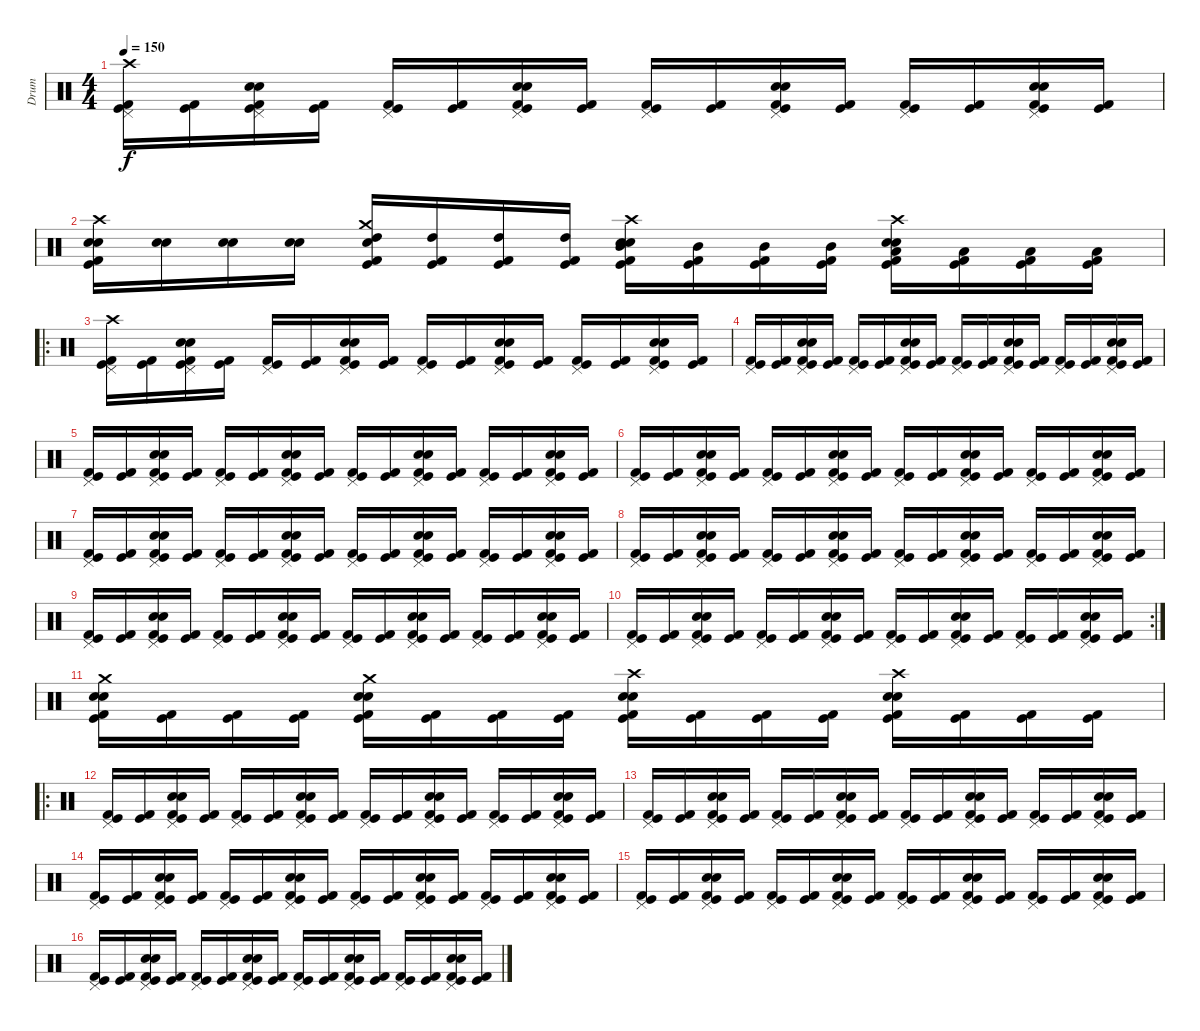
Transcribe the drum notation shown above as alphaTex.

\track ("Drum" "Drum") {instrument percussion}
\staff {score}
\articulation defaults
\ts (4 4)
\tempo 150
\clef neutral
\ks c
("Crash high (hit)" "Pedal Hi-Hat (hit)" "Kick (hit) 2" "Kick (hit)").16{dy f} ("Kick (hit) 2" "Kick (hit)").16 ("Pedal Hi-Hat (hit)" "Electric Snare (hit)" "Snare (hit) 2" "Kick (hit) 2" "Kick (hit)").16 ("Kick (hit) 2" "Kick (hit)").16 ("Pedal Hi-Hat (hit)" "Kick (hit) 2" "Kick (hit)").16 ("Kick (hit) 2" "Kick (hit)").16 ("Pedal Hi-Hat (hit)" "Electric Snare (hit)" "Snare (hit) 2" "Kick (hit) 2" "Kick (hit)").16 ("Kick (hit) 2" "Kick (hit)").16 ("Pedal Hi-Hat (hit)" "Kick (hit) 2" "Kick (hit)").16 ("Kick (hit) 2" "Kick (hit)").16 ("Pedal Hi-Hat (hit)" "Electric Snare (hit)" "Snare (hit) 2" "Kick (hit) 2" "Kick (hit)").16 ("Kick (hit) 2" "Kick (hit)").16 ("Pedal Hi-Hat (hit)" "Kick (hit) 2" "Kick (hit)").16 ("Kick (hit) 2" "Kick (hit)").16 ("Pedal Hi-Hat (hit)" "Electric Snare (hit)" "Snare (hit) 2" "Kick (hit) 2" "Kick (hit)").16 ("Kick (hit) 2" "Kick (hit)").16 |
("Crash high (hit)" "Electric Snare (hit)" "Snare (hit) 2" "Kick (hit)" "Kick (hit) 2").16 ("Electric Snare (hit)" "Snare (hit) 2").16 ("Electric Snare (hit)" "Snare (hit) 2").16 ("Electric Snare (hit)" "Snare (hit) 2").16 ("Crash medium (hit)" "High Tom (hit)" "Electric Snare (hit)" "Kick (hit)" "Kick (hit) 2").16 ("High Tom (hit)" "Kick (hit)" "Kick (hit) 2").16 ("High Tom (hit)" "Kick (hit)" "Kick (hit) 2").16 ("High Tom (hit)" "Kick (hit)" "Kick (hit) 2").16 ("Crash high (hit)" "Mid Tom (hit)" "Electric Snare (hit)" "Snare (hit) 2" "Kick (hit)" "Kick (hit) 2").16 ("Mid Tom (hit)" "Kick (hit)" "Kick (hit) 2").16 ("Mid Tom (hit)" "Kick (hit)" "Kick (hit) 2").16 ("Mid Tom (hit)" "Kick (hit)" "Kick (hit) 2").16 ("Crash high (hit)" "Low Tom (hit)" "Electric Snare (hit)" "Snare (hit) 2" "Kick (hit)" "Kick (hit) 2").16 ("Low Tom (hit)" "Kick (hit)" "Kick (hit) 2").16 ("Low Tom (hit)" "Kick (hit)" "Kick (hit) 2").16 ("Low Tom (hit)" "Kick (hit)" "Kick (hit) 2").16 |
\ro
("Crash high (hit)" "Pedal Hi-Hat (hit)" "Kick (hit) 2" "Kick (hit)").16 ("Kick (hit) 2" "Kick (hit)").16 ("Pedal Hi-Hat (hit)" "Electric Snare (hit)" "Snare (hit) 2" "Kick (hit) 2" "Kick (hit)").16 ("Kick (hit) 2" "Kick (hit)").16 ("Pedal Hi-Hat (hit)" "Kick (hit) 2" "Kick (hit)").16 ("Kick (hit) 2" "Kick (hit)").16 ("Pedal Hi-Hat (hit)" "Electric Snare (hit)" "Snare (hit) 2" "Kick (hit) 2" "Kick (hit)").16 ("Kick (hit) 2" "Kick (hit)").16 ("Pedal Hi-Hat (hit)" "Kick (hit) 2" "Kick (hit)").16 ("Kick (hit) 2" "Kick (hit)").16 ("Pedal Hi-Hat (hit)" "Electric Snare (hit)" "Snare (hit) 2" "Kick (hit) 2" "Kick (hit)").16 ("Kick (hit) 2" "Kick (hit)").16 ("Pedal Hi-Hat (hit)" "Kick (hit) 2" "Kick (hit)").16 ("Kick (hit) 2" "Kick (hit)").16 ("Pedal Hi-Hat (hit)" "Electric Snare (hit)" "Snare (hit) 2" "Kick (hit) 2" "Kick (hit)").16 ("Kick (hit) 2" "Kick (hit)").16 |
("Pedal Hi-Hat (hit)" "Kick (hit) 2" "Kick (hit)").16 ("Kick (hit) 2" "Kick (hit)").16 ("Pedal Hi-Hat (hit)" "Electric Snare (hit)" "Snare (hit) 2" "Kick (hit) 2" "Kick (hit)").16 ("Kick (hit) 2" "Kick (hit)").16 ("Pedal Hi-Hat (hit)" "Kick (hit) 2" "Kick (hit)").16 ("Kick (hit) 2" "Kick (hit)").16 ("Pedal Hi-Hat (hit)" "Electric Snare (hit)" "Snare (hit) 2" "Kick (hit) 2" "Kick (hit)").16 ("Kick (hit) 2" "Kick (hit)").16 ("Pedal Hi-Hat (hit)" "Kick (hit) 2" "Kick (hit)").16 ("Kick (hit) 2" "Kick (hit)").16 ("Pedal Hi-Hat (hit)" "Electric Snare (hit)" "Snare (hit) 2" "Kick (hit) 2" "Kick (hit)").16 ("Kick (hit) 2" "Kick (hit)").16 ("Pedal Hi-Hat (hit)" "Kick (hit) 2" "Kick (hit)").16 ("Kick (hit) 2" "Kick (hit)").16 ("Pedal Hi-Hat (hit)" "Electric Snare (hit)" "Snare (hit) 2" "Kick (hit) 2" "Kick (hit)").16 ("Kick (hit) 2" "Kick (hit)").16 |
("Pedal Hi-Hat (hit)" "Kick (hit) 2" "Kick (hit)").16 ("Kick (hit) 2" "Kick (hit)").16 ("Pedal Hi-Hat (hit)" "Electric Snare (hit)" "Snare (hit) 2" "Kick (hit) 2" "Kick (hit)").16 ("Kick (hit) 2" "Kick (hit)").16 ("Pedal Hi-Hat (hit)" "Kick (hit) 2" "Kick (hit)").16 ("Kick (hit) 2" "Kick (hit)").16 ("Pedal Hi-Hat (hit)" "Electric Snare (hit)" "Snare (hit) 2" "Kick (hit) 2" "Kick (hit)").16 ("Kick (hit) 2" "Kick (hit)").16 ("Pedal Hi-Hat (hit)" "Kick (hit) 2" "Kick (hit)").16 ("Kick (hit) 2" "Kick (hit)").16 ("Pedal Hi-Hat (hit)" "Electric Snare (hit)" "Snare (hit) 2" "Kick (hit) 2" "Kick (hit)").16 ("Kick (hit) 2" "Kick (hit)").16 ("Pedal Hi-Hat (hit)" "Kick (hit) 2" "Kick (hit)").16 ("Kick (hit) 2" "Kick (hit)").16 ("Pedal Hi-Hat (hit)" "Electric Snare (hit)" "Snare (hit) 2" "Kick (hit) 2" "Kick (hit)").16 ("Kick (hit) 2" "Kick (hit)").16 |
("Pedal Hi-Hat (hit)" "Kick (hit) 2" "Kick (hit)").16 ("Kick (hit) 2" "Kick (hit)").16 ("Pedal Hi-Hat (hit)" "Electric Snare (hit)" "Snare (hit) 2" "Kick (hit) 2" "Kick (hit)").16 ("Kick (hit) 2" "Kick (hit)").16 ("Pedal Hi-Hat (hit)" "Kick (hit) 2" "Kick (hit)").16 ("Kick (hit) 2" "Kick (hit)").16 ("Pedal Hi-Hat (hit)" "Electric Snare (hit)" "Snare (hit) 2" "Kick (hit) 2" "Kick (hit)").16 ("Kick (hit) 2" "Kick (hit)").16 ("Pedal Hi-Hat (hit)" "Kick (hit) 2" "Kick (hit)").16 ("Kick (hit) 2" "Kick (hit)").16 ("Pedal Hi-Hat (hit)" "Electric Snare (hit)" "Snare (hit) 2" "Kick (hit) 2" "Kick (hit)").16 ("Kick (hit) 2" "Kick (hit)").16 ("Pedal Hi-Hat (hit)" "Kick (hit) 2" "Kick (hit)").16 ("Kick (hit) 2" "Kick (hit)").16 ("Pedal Hi-Hat (hit)" "Electric Snare (hit)" "Snare (hit) 2" "Kick (hit) 2" "Kick (hit)").16 ("Kick (hit) 2" "Kick (hit)").16 |
("Pedal Hi-Hat (hit)" "Kick (hit) 2" "Kick (hit)").16 ("Kick (hit) 2" "Kick (hit)").16 ("Pedal Hi-Hat (hit)" "Electric Snare (hit)" "Snare (hit) 2" "Kick (hit) 2" "Kick (hit)").16 ("Kick (hit) 2" "Kick (hit)").16 ("Pedal Hi-Hat (hit)" "Kick (hit) 2" "Kick (hit)").16 ("Kick (hit) 2" "Kick (hit)").16 ("Pedal Hi-Hat (hit)" "Electric Snare (hit)" "Snare (hit) 2" "Kick (hit) 2" "Kick (hit)").16 ("Kick (hit) 2" "Kick (hit)").16 ("Pedal Hi-Hat (hit)" "Kick (hit) 2" "Kick (hit)").16 ("Kick (hit) 2" "Kick (hit)").16 ("Pedal Hi-Hat (hit)" "Electric Snare (hit)" "Snare (hit) 2" "Kick (hit) 2" "Kick (hit)").16 ("Kick (hit) 2" "Kick (hit)").16 ("Pedal Hi-Hat (hit)" "Kick (hit) 2" "Kick (hit)").16 ("Kick (hit) 2" "Kick (hit)").16 ("Pedal Hi-Hat (hit)" "Electric Snare (hit)" "Snare (hit) 2" "Kick (hit) 2" "Kick (hit)").16 ("Kick (hit) 2" "Kick (hit)").16 |
("Pedal Hi-Hat (hit)" "Kick (hit) 2" "Kick (hit)").16 ("Kick (hit) 2" "Kick (hit)").16 ("Pedal Hi-Hat (hit)" "Electric Snare (hit)" "Snare (hit) 2" "Kick (hit) 2" "Kick (hit)").16 ("Kick (hit) 2" "Kick (hit)").16 ("Pedal Hi-Hat (hit)" "Kick (hit) 2" "Kick (hit)").16 ("Kick (hit) 2" "Kick (hit)").16 ("Pedal Hi-Hat (hit)" "Electric Snare (hit)" "Snare (hit) 2" "Kick (hit) 2" "Kick (hit)").16 ("Kick (hit) 2" "Kick (hit)").16 ("Pedal Hi-Hat (hit)" "Kick (hit) 2" "Kick (hit)").16 ("Kick (hit) 2" "Kick (hit)").16 ("Pedal Hi-Hat (hit)" "Electric Snare (hit)" "Snare (hit) 2" "Kick (hit) 2" "Kick (hit)").16 ("Kick (hit) 2" "Kick (hit)").16 ("Pedal Hi-Hat (hit)" "Kick (hit) 2" "Kick (hit)").16 ("Kick (hit) 2" "Kick (hit)").16 ("Pedal Hi-Hat (hit)" "Electric Snare (hit)" "Snare (hit) 2" "Kick (hit) 2" "Kick (hit)").16 ("Kick (hit) 2" "Kick (hit)").16 |
("Pedal Hi-Hat (hit)" "Kick (hit) 2" "Kick (hit)").16 ("Kick (hit) 2" "Kick (hit)").16 ("Pedal Hi-Hat (hit)" "Electric Snare (hit)" "Snare (hit) 2" "Kick (hit) 2" "Kick (hit)").16 ("Kick (hit) 2" "Kick (hit)").16 ("Pedal Hi-Hat (hit)" "Kick (hit) 2" "Kick (hit)").16 ("Kick (hit) 2" "Kick (hit)").16 ("Pedal Hi-Hat (hit)" "Electric Snare (hit)" "Snare (hit) 2" "Kick (hit) 2" "Kick (hit)").16 ("Kick (hit) 2" "Kick (hit)").16 ("Pedal Hi-Hat (hit)" "Kick (hit) 2" "Kick (hit)").16 ("Kick (hit) 2" "Kick (hit)").16 ("Pedal Hi-Hat (hit)" "Electric Snare (hit)" "Snare (hit) 2" "Kick (hit) 2" "Kick (hit)").16 ("Kick (hit) 2" "Kick (hit)").16 ("Pedal Hi-Hat (hit)" "Kick (hit) 2" "Kick (hit)").16 ("Kick (hit) 2" "Kick (hit)").16 ("Pedal Hi-Hat (hit)" "Electric Snare (hit)" "Snare (hit) 2" "Kick (hit) 2" "Kick (hit)").16 ("Kick (hit) 2" "Kick (hit)").16 |
\rc 2
("Pedal Hi-Hat (hit)" "Kick (hit) 2" "Kick (hit)").16 ("Kick (hit) 2" "Kick (hit)").16 ("Pedal Hi-Hat (hit)" "Electric Snare (hit)" "Snare (hit) 2" "Kick (hit) 2" "Kick (hit)").16 ("Kick (hit) 2" "Kick (hit)").16 ("Pedal Hi-Hat (hit)" "Kick (hit) 2" "Kick (hit)").16 ("Kick (hit) 2" "Kick (hit)").16 ("Pedal Hi-Hat (hit)" "Electric Snare (hit)" "Snare (hit) 2" "Kick (hit) 2" "Kick (hit)").16 ("Kick (hit) 2" "Kick (hit)").16 ("Pedal Hi-Hat (hit)" "Kick (hit) 2" "Kick (hit)").16 ("Kick (hit) 2" "Kick (hit)").16 ("Pedal Hi-Hat (hit)" "Electric Snare (hit)" "Snare (hit) 2" "Kick (hit) 2" "Kick (hit)").16 ("Kick (hit) 2" "Kick (hit)").16 ("Pedal Hi-Hat (hit)" "Kick (hit) 2" "Kick (hit)").16 ("Kick (hit) 2" "Kick (hit)").16 ("Pedal Hi-Hat (hit)" "Electric Snare (hit)" "Snare (hit) 2" "Kick (hit) 2" "Kick (hit)").16 ("Kick (hit) 2" "Kick (hit)").16 |
("Crash medium (hit)" "Electric Snare (hit)" "Snare (hit) 2" "Kick (hit) 2" "Kick (hit)").16 ("Kick (hit) 2" "Kick (hit)").16 ("Kick (hit) 2" "Kick (hit)").16 ("Kick (hit) 2" "Kick (hit)").16 ("Crash medium (hit)" "Electric Snare (hit)" "Snare (hit) 2" "Kick (hit) 2" "Kick (hit)").16 ("Kick (hit) 2" "Kick (hit)").16 ("Kick (hit) 2" "Kick (hit)").16 ("Kick (hit) 2" "Kick (hit)").16 ("Crash high (hit)" "Electric Snare (hit)" "Snare (hit) 2" "Kick (hit) 2" "Kick (hit)").16 ("Kick (hit) 2" "Kick (hit)").16 ("Kick (hit) 2" "Kick (hit)").16 ("Kick (hit) 2" "Kick (hit)").16 ("Crash high (hit)" "Snare (hit) 2" "Electric Snare (hit)" "Kick (hit) 2" "Kick (hit)").16 ("Kick (hit) 2" "Kick (hit)").16 ("Kick (hit) 2" "Kick (hit)").16 ("Kick (hit) 2" "Kick (hit)").16 |
\ro
("Pedal Hi-Hat (hit)" "Kick (hit) 2" "Kick (hit)").16 ("Kick (hit) 2" "Kick (hit)").16 ("Pedal Hi-Hat (hit)" "Electric Snare (hit)" "Snare (hit) 2" "Kick (hit) 2" "Kick (hit)").16 ("Kick (hit) 2" "Kick (hit)").16 ("Pedal Hi-Hat (hit)" "Kick (hit) 2" "Kick (hit)").16 ("Kick (hit) 2" "Kick (hit)").16 ("Pedal Hi-Hat (hit)" "Electric Snare (hit)" "Snare (hit) 2" "Kick (hit) 2" "Kick (hit)").16 ("Kick (hit) 2" "Kick (hit)").16 ("Pedal Hi-Hat (hit)" "Kick (hit) 2" "Kick (hit)").16 ("Kick (hit) 2" "Kick (hit)").16 ("Pedal Hi-Hat (hit)" "Electric Snare (hit)" "Snare (hit) 2" "Kick (hit) 2" "Kick (hit)").16 ("Kick (hit) 2" "Kick (hit)").16 ("Pedal Hi-Hat (hit)" "Kick (hit) 2" "Kick (hit)").16 ("Kick (hit) 2" "Kick (hit)").16 ("Pedal Hi-Hat (hit)" "Electric Snare (hit)" "Snare (hit) 2" "Kick (hit) 2" "Kick (hit)").16 ("Kick (hit) 2" "Kick (hit)").16 |
("Pedal Hi-Hat (hit)" "Kick (hit) 2" "Kick (hit)").16 ("Kick (hit) 2" "Kick (hit)").16 ("Pedal Hi-Hat (hit)" "Electric Snare (hit)" "Snare (hit) 2" "Kick (hit) 2" "Kick (hit)").16 ("Kick (hit) 2" "Kick (hit)").16 ("Pedal Hi-Hat (hit)" "Kick (hit) 2" "Kick (hit)").16 ("Kick (hit) 2" "Kick (hit)").16 ("Pedal Hi-Hat (hit)" "Electric Snare (hit)" "Snare (hit) 2" "Kick (hit) 2" "Kick (hit)").16 ("Kick (hit) 2" "Kick (hit)").16 ("Pedal Hi-Hat (hit)" "Kick (hit) 2" "Kick (hit)").16 ("Kick (hit) 2" "Kick (hit)").16 ("Pedal Hi-Hat (hit)" "Electric Snare (hit)" "Snare (hit) 2" "Kick (hit) 2" "Kick (hit)").16 ("Kick (hit) 2" "Kick (hit)").16 ("Pedal Hi-Hat (hit)" "Kick (hit) 2" "Kick (hit)").16 ("Kick (hit) 2" "Kick (hit)").16 ("Pedal Hi-Hat (hit)" "Electric Snare (hit)" "Snare (hit) 2" "Kick (hit) 2" "Kick (hit)").16 ("Kick (hit) 2" "Kick (hit)").16 |
("Pedal Hi-Hat (hit)" "Kick (hit) 2" "Kick (hit)").16 ("Kick (hit) 2" "Kick (hit)").16 ("Pedal Hi-Hat (hit)" "Electric Snare (hit)" "Snare (hit) 2" "Kick (hit) 2" "Kick (hit)").16 ("Kick (hit) 2" "Kick (hit)").16 ("Pedal Hi-Hat (hit)" "Kick (hit) 2" "Kick (hit)").16 ("Kick (hit) 2" "Kick (hit)").16 ("Pedal Hi-Hat (hit)" "Electric Snare (hit)" "Snare (hit) 2" "Kick (hit) 2" "Kick (hit)").16 ("Kick (hit) 2" "Kick (hit)").16 ("Pedal Hi-Hat (hit)" "Kick (hit) 2" "Kick (hit)").16 ("Kick (hit) 2" "Kick (hit)").16 ("Pedal Hi-Hat (hit)" "Electric Snare (hit)" "Snare (hit) 2" "Kick (hit) 2" "Kick (hit)").16 ("Kick (hit) 2" "Kick (hit)").16 ("Pedal Hi-Hat (hit)" "Kick (hit) 2" "Kick (hit)").16 ("Kick (hit) 2" "Kick (hit)").16 ("Pedal Hi-Hat (hit)" "Electric Snare (hit)" "Snare (hit) 2" "Kick (hit) 2" "Kick (hit)").16 ("Kick (hit) 2" "Kick (hit)").16 |
("Pedal Hi-Hat (hit)" "Kick (hit) 2" "Kick (hit)").16 ("Kick (hit) 2" "Kick (hit)").16 ("Pedal Hi-Hat (hit)" "Electric Snare (hit)" "Snare (hit) 2" "Kick (hit) 2" "Kick (hit)").16 ("Kick (hit) 2" "Kick (hit)").16 ("Pedal Hi-Hat (hit)" "Kick (hit) 2" "Kick (hit)").16 ("Kick (hit) 2" "Kick (hit)").16 ("Pedal Hi-Hat (hit)" "Electric Snare (hit)" "Snare (hit) 2" "Kick (hit) 2" "Kick (hit)").16 ("Kick (hit) 2" "Kick (hit)").16 ("Pedal Hi-Hat (hit)" "Kick (hit) 2" "Kick (hit)").16 ("Kick (hit) 2" "Kick (hit)").16 ("Pedal Hi-Hat (hit)" "Electric Snare (hit)" "Snare (hit) 2" "Kick (hit) 2" "Kick (hit)").16 ("Kick (hit) 2" "Kick (hit)").16 ("Pedal Hi-Hat (hit)" "Kick (hit) 2" "Kick (hit)").16 ("Kick (hit) 2" "Kick (hit)").16 ("Pedal Hi-Hat (hit)" "Electric Snare (hit)" "Snare (hit) 2" "Kick (hit) 2" "Kick (hit)").16 ("Kick (hit) 2" "Kick (hit)").16 |
("Pedal Hi-Hat (hit)" "Kick (hit) 2" "Kick (hit)").16 ("Kick (hit) 2" "Kick (hit)").16 ("Pedal Hi-Hat (hit)" "Electric Snare (hit)" "Snare (hit) 2" "Kick (hit) 2" "Kick (hit)").16 ("Kick (hit) 2" "Kick (hit)").16 ("Pedal Hi-Hat (hit)" "Kick (hit) 2" "Kick (hit)").16 ("Kick (hit) 2" "Kick (hit)").16 ("Pedal Hi-Hat (hit)" "Electric Snare (hit)" "Snare (hit) 2" "Kick (hit) 2" "Kick (hit)").16 ("Kick (hit) 2" "Kick (hit)").16 ("Pedal Hi-Hat (hit)" "Kick (hit) 2" "Kick (hit)").16 ("Kick (hit) 2" "Kick (hit)").16 ("Pedal Hi-Hat (hit)" "Electric Snare (hit)" "Snare (hit) 2" "Kick (hit) 2" "Kick (hit)").16 ("Kick (hit) 2" "Kick (hit)").16 ("Pedal Hi-Hat (hit)" "Kick (hit) 2" "Kick (hit)").16 ("Kick (hit) 2" "Kick (hit)").16 ("Pedal Hi-Hat (hit)" "Electric Snare (hit)" "Snare (hit) 2" "Kick (hit) 2" "Kick (hit)").16 ("Kick (hit) 2" "Kick (hit)").16
